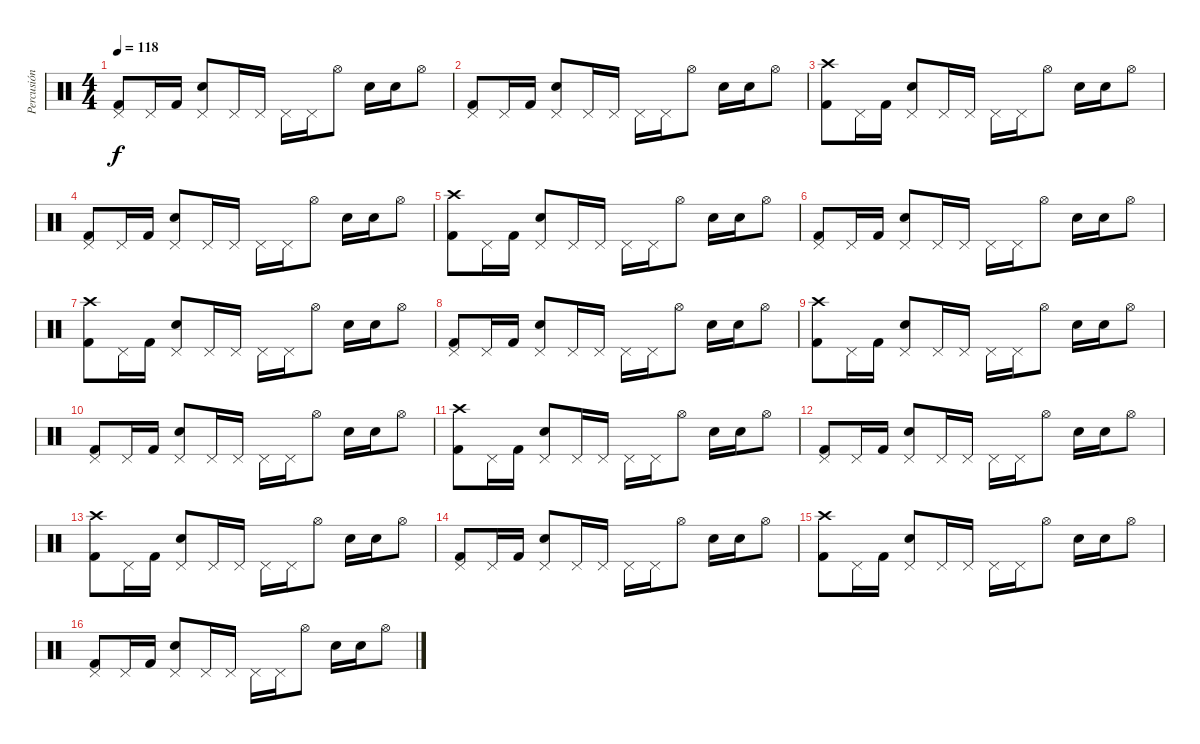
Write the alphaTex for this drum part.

\track ("Percusión" "Percusión") {instrument percussion}
\staff {score}
\articulation defaults
\ts (4 4)
\tempo 118
\clef neutral
\ks c
("Pedal Hi-Hat (hit)" "Kick (hit) 2").8{dy f} "Pedal Hi-Hat (hit)".16 "Kick (hit) 2".16 ("Pedal Hi-Hat (hit)" "Snare (hit) 2").8 "Pedal Hi-Hat (hit)".16 "Pedal Hi-Hat (hit)".16 "Pedal Hi-Hat (hit)".16 "Pedal Hi-Hat (hit)".16 "Hi-Hat (open)".8 "Snare (hit) 2".16 "Snare (hit) 2".16 "Hi-Hat (open)".8 |
("Pedal Hi-Hat (hit)" "Kick (hit) 2").8 "Pedal Hi-Hat (hit)".16 "Kick (hit) 2".16 ("Pedal Hi-Hat (hit)" "Snare (hit) 2").8 "Pedal Hi-Hat (hit)".16 "Pedal Hi-Hat (hit)".16 "Pedal Hi-Hat (hit)".16 "Pedal Hi-Hat (hit)".16 "Hi-Hat (open)".8 "Snare (hit) 2".16 "Snare (hit) 2".16 "Hi-Hat (open)".8 |
("Crash high (hit)" "Kick (hit) 2").8 "Pedal Hi-Hat (hit)".16 "Kick (hit) 2".16 ("Pedal Hi-Hat (hit)" "Snare (hit) 2").8 "Pedal Hi-Hat (hit)".16 "Pedal Hi-Hat (hit)".16 "Pedal Hi-Hat (hit)".16 "Pedal Hi-Hat (hit)".16 "Hi-Hat (open)".8 "Snare (hit) 2".16 "Snare (hit) 2".16 "Hi-Hat (open)".8 |
("Pedal Hi-Hat (hit)" "Kick (hit) 2").8 "Pedal Hi-Hat (hit)".16 "Kick (hit) 2".16 ("Pedal Hi-Hat (hit)" "Snare (hit) 2").8 "Pedal Hi-Hat (hit)".16 "Pedal Hi-Hat (hit)".16 "Pedal Hi-Hat (hit)".16 "Pedal Hi-Hat (hit)".16 "Hi-Hat (open)".8 "Snare (hit) 2".16 "Snare (hit) 2".16 "Hi-Hat (open)".8 |
("Crash high (hit)" "Kick (hit) 2").8 "Pedal Hi-Hat (hit)".16 "Kick (hit) 2".16 ("Pedal Hi-Hat (hit)" "Snare (hit) 2").8 "Pedal Hi-Hat (hit)".16 "Pedal Hi-Hat (hit)".16 "Pedal Hi-Hat (hit)".16 "Pedal Hi-Hat (hit)".16 "Hi-Hat (open)".8 "Snare (hit) 2".16 "Snare (hit) 2".16 "Hi-Hat (open)".8 |
("Pedal Hi-Hat (hit)" "Kick (hit) 2").8 "Pedal Hi-Hat (hit)".16 "Kick (hit) 2".16 ("Pedal Hi-Hat (hit)" "Snare (hit) 2").8 "Pedal Hi-Hat (hit)".16 "Pedal Hi-Hat (hit)".16 "Pedal Hi-Hat (hit)".16 "Pedal Hi-Hat (hit)".16 "Hi-Hat (open)".8 "Snare (hit) 2".16 "Snare (hit) 2".16 "Hi-Hat (open)".8 |
("Crash high (hit)" "Kick (hit) 2").8 "Pedal Hi-Hat (hit)".16 "Kick (hit) 2".16 ("Pedal Hi-Hat (hit)" "Snare (hit) 2").8 "Pedal Hi-Hat (hit)".16 "Pedal Hi-Hat (hit)".16 "Pedal Hi-Hat (hit)".16 "Pedal Hi-Hat (hit)".16 "Hi-Hat (open)".8 "Snare (hit) 2".16 "Snare (hit) 2".16 "Hi-Hat (open)".8 |
("Pedal Hi-Hat (hit)" "Kick (hit) 2").8 "Pedal Hi-Hat (hit)".16 "Kick (hit) 2".16 ("Pedal Hi-Hat (hit)" "Snare (hit) 2").8 "Pedal Hi-Hat (hit)".16 "Pedal Hi-Hat (hit)".16 "Pedal Hi-Hat (hit)".16 "Pedal Hi-Hat (hit)".16 "Hi-Hat (open)".8 "Snare (hit) 2".16 "Snare (hit) 2".16 "Hi-Hat (open)".8 |
("Crash high (hit)" "Kick (hit) 2").8 "Pedal Hi-Hat (hit)".16 "Kick (hit) 2".16 ("Pedal Hi-Hat (hit)" "Snare (hit) 2").8 "Pedal Hi-Hat (hit)".16 "Pedal Hi-Hat (hit)".16 "Pedal Hi-Hat (hit)".16 "Pedal Hi-Hat (hit)".16 "Hi-Hat (open)".8 "Snare (hit) 2".16 "Snare (hit) 2".16 "Hi-Hat (open)".8 |
("Pedal Hi-Hat (hit)" "Kick (hit) 2").8 "Pedal Hi-Hat (hit)".16 "Kick (hit) 2".16 ("Pedal Hi-Hat (hit)" "Snare (hit) 2").8 "Pedal Hi-Hat (hit)".16 "Pedal Hi-Hat (hit)".16 "Pedal Hi-Hat (hit)".16 "Pedal Hi-Hat (hit)".16 "Hi-Hat (open)".8 "Snare (hit) 2".16 "Snare (hit) 2".16 "Hi-Hat (open)".8 |
("Crash high (hit)" "Kick (hit) 2").8 "Pedal Hi-Hat (hit)".16 "Kick (hit) 2".16 ("Pedal Hi-Hat (hit)" "Snare (hit) 2").8 "Pedal Hi-Hat (hit)".16 "Pedal Hi-Hat (hit)".16 "Pedal Hi-Hat (hit)".16 "Pedal Hi-Hat (hit)".16 "Hi-Hat (open)".8 "Snare (hit) 2".16 "Snare (hit) 2".16 "Hi-Hat (open)".8 |
("Pedal Hi-Hat (hit)" "Kick (hit) 2").8 "Pedal Hi-Hat (hit)".16 "Kick (hit) 2".16 ("Pedal Hi-Hat (hit)" "Snare (hit) 2").8 "Pedal Hi-Hat (hit)".16 "Pedal Hi-Hat (hit)".16 "Pedal Hi-Hat (hit)".16 "Pedal Hi-Hat (hit)".16 "Hi-Hat (open)".8 "Snare (hit) 2".16 "Snare (hit) 2".16 "Hi-Hat (open)".8 |
("Crash high (hit)" "Kick (hit) 2").8 "Pedal Hi-Hat (hit)".16 "Kick (hit) 2".16 ("Pedal Hi-Hat (hit)" "Snare (hit) 2").8 "Pedal Hi-Hat (hit)".16 "Pedal Hi-Hat (hit)".16 "Pedal Hi-Hat (hit)".16 "Pedal Hi-Hat (hit)".16 "Hi-Hat (open)".8 "Snare (hit) 2".16 "Snare (hit) 2".16 "Hi-Hat (open)".8 |
("Pedal Hi-Hat (hit)" "Kick (hit) 2").8 "Pedal Hi-Hat (hit)".16 "Kick (hit) 2".16 ("Pedal Hi-Hat (hit)" "Snare (hit) 2").8 "Pedal Hi-Hat (hit)".16 "Pedal Hi-Hat (hit)".16 "Pedal Hi-Hat (hit)".16 "Pedal Hi-Hat (hit)".16 "Hi-Hat (open)".8 "Snare (hit) 2".16 "Snare (hit) 2".16 "Hi-Hat (open)".8 |
("Crash high (hit)" "Kick (hit) 2").8 "Pedal Hi-Hat (hit)".16 "Kick (hit) 2".16 ("Pedal Hi-Hat (hit)" "Snare (hit) 2").8 "Pedal Hi-Hat (hit)".16 "Pedal Hi-Hat (hit)".16 "Pedal Hi-Hat (hit)".16 "Pedal Hi-Hat (hit)".16 "Hi-Hat (open)".8 "Snare (hit) 2".16 "Snare (hit) 2".16 "Hi-Hat (open)".8 |
("Pedal Hi-Hat (hit)" "Kick (hit) 2").8 "Pedal Hi-Hat (hit)".16 "Kick (hit) 2".16 ("Pedal Hi-Hat (hit)" "Snare (hit) 2").8 "Pedal Hi-Hat (hit)".16 "Pedal Hi-Hat (hit)".16 "Pedal Hi-Hat (hit)".16 "Pedal Hi-Hat (hit)".16 "Hi-Hat (open)".8 "Snare (hit) 2".16 "Snare (hit) 2".16 "Hi-Hat (open)".8
